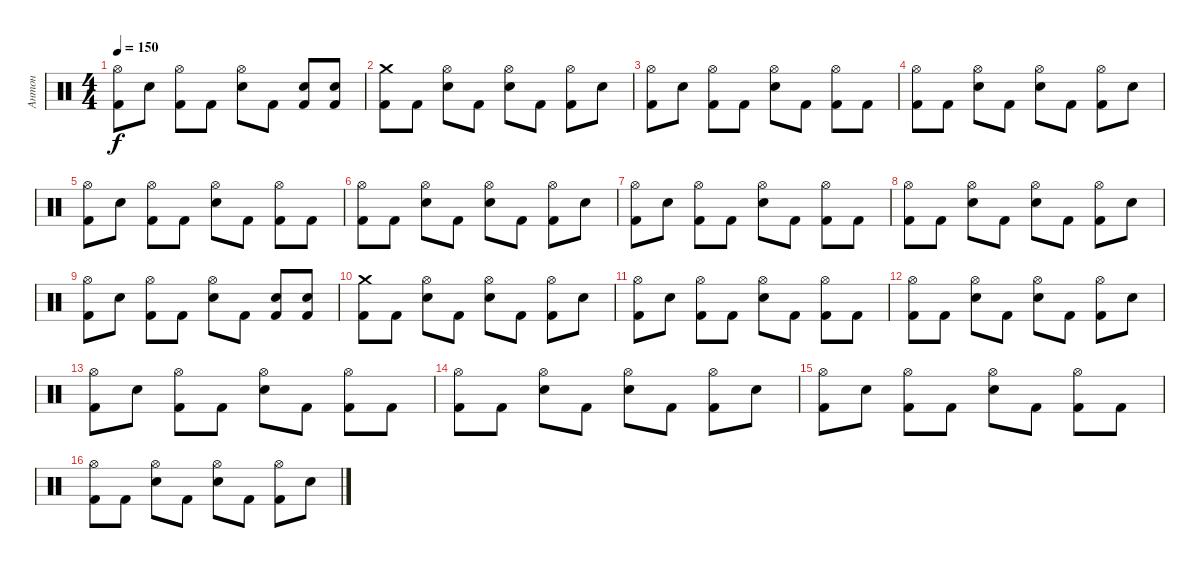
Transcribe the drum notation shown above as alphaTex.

\track ("Антон" "Антон") {instrument percussion}
\staff {score}
\articulation defaults
\ts (4 4)
\tempo 150
\clef neutral
\ks c
("Hi-Hat (open)" "Kick (hit) 2").8{dy f} "Electric Snare (hit)".8 ("Hi-Hat (open)" "Kick (hit) 2").8 "Kick (hit) 2".8 ("Hi-Hat (open)" "Electric Snare (hit)").8 "Kick (hit) 2".8 ("Electric Snare (hit)" "Kick (hit) 2").8 ("Electric Snare (hit)" "Kick (hit) 2").8 |
("Crash medium (hit)" "Kick (hit) 2").8 "Kick (hit) 2".8 ("Hi-Hat (open)" "Electric Snare (hit)").8 "Kick (hit) 2".8 ("Hi-Hat (open)" "Electric Snare (hit)").8 "Kick (hit) 2".8 ("Hi-Hat (open)" "Kick (hit) 2").8 "Electric Snare (hit)".8 |
("Hi-Hat (open)" "Kick (hit) 2").8 "Electric Snare (hit)".8 ("Hi-Hat (open)" "Kick (hit) 2").8 "Kick (hit) 2".8 ("Hi-Hat (open)" "Electric Snare (hit)").8 "Kick (hit) 2".8 ("Hi-Hat (open)" "Kick (hit) 2").8 "Kick (hit) 2".8 |
("Hi-Hat (open)" "Kick (hit) 2").8 "Kick (hit) 2".8 ("Hi-Hat (open)" "Electric Snare (hit)").8 "Kick (hit) 2".8 ("Hi-Hat (open)" "Electric Snare (hit)").8 "Kick (hit) 2".8 ("Hi-Hat (open)" "Kick (hit) 2").8 "Electric Snare (hit)".8 |
("Hi-Hat (open)" "Kick (hit) 2").8 "Electric Snare (hit)".8 ("Hi-Hat (open)" "Kick (hit) 2").8 "Kick (hit) 2".8 ("Hi-Hat (open)" "Electric Snare (hit)").8 "Kick (hit) 2".8 ("Hi-Hat (open)" "Kick (hit) 2").8 "Kick (hit) 2".8 |
("Hi-Hat (open)" "Kick (hit) 2").8 "Kick (hit) 2".8 ("Hi-Hat (open)" "Electric Snare (hit)").8 "Kick (hit) 2".8 ("Hi-Hat (open)" "Electric Snare (hit)").8 "Kick (hit) 2".8 ("Hi-Hat (open)" "Kick (hit) 2").8 "Electric Snare (hit)".8 |
("Hi-Hat (open)" "Kick (hit) 2").8 "Electric Snare (hit)".8 ("Hi-Hat (open)" "Kick (hit) 2").8 "Kick (hit) 2".8 ("Hi-Hat (open)" "Electric Snare (hit)").8 "Kick (hit) 2".8 ("Hi-Hat (open)" "Kick (hit) 2").8 "Kick (hit) 2".8 |
("Hi-Hat (open)" "Kick (hit) 2").8 "Kick (hit) 2".8 ("Hi-Hat (open)" "Electric Snare (hit)").8 "Kick (hit) 2".8 ("Hi-Hat (open)" "Electric Snare (hit)").8 "Kick (hit) 2".8 ("Hi-Hat (open)" "Kick (hit) 2").8 "Electric Snare (hit)".8 |
("Hi-Hat (open)" "Kick (hit) 2").8 "Electric Snare (hit)".8 ("Hi-Hat (open)" "Kick (hit) 2").8 "Kick (hit) 2".8 ("Hi-Hat (open)" "Electric Snare (hit)").8 "Kick (hit) 2".8 ("Electric Snare (hit)" "Kick (hit) 2").8 ("Electric Snare (hit)" "Kick (hit) 2").8 |
("Crash medium (hit)" "Kick (hit) 2").8 "Kick (hit) 2".8 ("Hi-Hat (open)" "Electric Snare (hit)").8 "Kick (hit) 2".8 ("Hi-Hat (open)" "Electric Snare (hit)").8 "Kick (hit) 2".8 ("Hi-Hat (open)" "Kick (hit) 2").8 "Electric Snare (hit)".8 |
("Hi-Hat (open)" "Kick (hit) 2").8 "Electric Snare (hit)".8 ("Hi-Hat (open)" "Kick (hit) 2").8 "Kick (hit) 2".8 ("Hi-Hat (open)" "Electric Snare (hit)").8 "Kick (hit) 2".8 ("Hi-Hat (open)" "Kick (hit) 2").8 "Kick (hit) 2".8 |
("Hi-Hat (open)" "Kick (hit) 2").8 "Kick (hit) 2".8 ("Hi-Hat (open)" "Electric Snare (hit)").8 "Kick (hit) 2".8 ("Hi-Hat (open)" "Electric Snare (hit)").8 "Kick (hit) 2".8 ("Hi-Hat (open)" "Kick (hit) 2").8 "Electric Snare (hit)".8 |
("Hi-Hat (open)" "Kick (hit) 2").8 "Electric Snare (hit)".8 ("Hi-Hat (open)" "Kick (hit) 2").8 "Kick (hit) 2".8 ("Hi-Hat (open)" "Electric Snare (hit)").8 "Kick (hit) 2".8 ("Hi-Hat (open)" "Kick (hit) 2").8 "Kick (hit) 2".8 |
("Hi-Hat (open)" "Kick (hit) 2").8 "Kick (hit) 2".8 ("Hi-Hat (open)" "Electric Snare (hit)").8 "Kick (hit) 2".8 ("Hi-Hat (open)" "Electric Snare (hit)").8 "Kick (hit) 2".8 ("Hi-Hat (open)" "Kick (hit) 2").8 "Electric Snare (hit)".8 |
("Hi-Hat (open)" "Kick (hit) 2").8 "Electric Snare (hit)".8 ("Hi-Hat (open)" "Kick (hit) 2").8 "Kick (hit) 2".8 ("Hi-Hat (open)" "Electric Snare (hit)").8 "Kick (hit) 2".8 ("Hi-Hat (open)" "Kick (hit) 2").8 "Kick (hit) 2".8 |
("Hi-Hat (open)" "Kick (hit) 2").8 "Kick (hit) 2".8 ("Hi-Hat (open)" "Electric Snare (hit)").8 "Kick (hit) 2".8 ("Hi-Hat (open)" "Electric Snare (hit)").8 "Kick (hit) 2".8 ("Hi-Hat (open)" "Kick (hit) 2").8 "Electric Snare (hit)".8
